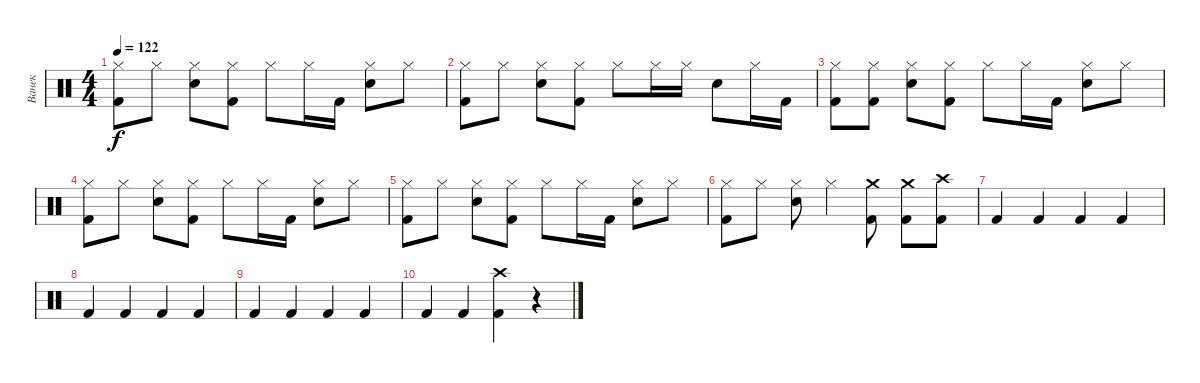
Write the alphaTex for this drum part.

\track ("Ванек" "Ванек") {instrument percussion}
\staff {score}
\articulation defaults
\ts (4 4)
\tempo 122
\clef neutral
\ks c
("Hi-Hat (closed)" "Kick (hit) 2").8{dy f} "Hi-Hat (closed)".8 ("Hi-Hat (closed)" "Electric Snare (hit)").8 ("Hi-Hat (closed)" "Kick (hit) 2").8 "Hi-Hat (closed)".8 "Hi-Hat (closed)".16 "Kick (hit) 2".16 ("Hi-Hat (closed)" "Electric Snare (hit)").8 "Hi-Hat (closed)".8 |
("Hi-Hat (closed)" "Kick (hit) 2").8 "Hi-Hat (closed)".8 ("Hi-Hat (closed)" "Electric Snare (hit)").8 ("Hi-Hat (closed)" "Kick (hit) 2").8 "Hi-Hat (closed)".8 "Hi-Hat (closed)".16 "Hi-Hat (closed)".16 "Electric Snare (hit)".8 "Hi-Hat (closed)".16 "Kick (hit) 2".16 |
("Hi-Hat (closed)" "Kick (hit) 2").8 ("Hi-Hat (closed)" "Kick (hit) 2").8 ("Hi-Hat (closed)" "Electric Snare (hit)").8 ("Hi-Hat (closed)" "Kick (hit) 2").8 "Hi-Hat (closed)".8 "Hi-Hat (closed)".16 "Kick (hit) 2".16 ("Hi-Hat (closed)" "Electric Snare (hit)").8 "Hi-Hat (closed)".8 |
("Hi-Hat (closed)" "Kick (hit) 2").8 "Hi-Hat (closed)".8 ("Hi-Hat (closed)" "Electric Snare (hit)").8 ("Hi-Hat (closed)" "Kick (hit) 2").8 "Hi-Hat (closed)".8 "Hi-Hat (closed)".16 "Kick (hit) 2".16 ("Hi-Hat (closed)" "Electric Snare (hit)").8 "Hi-Hat (closed)".8 |
("Hi-Hat (closed)" "Kick (hit) 2").8 "Hi-Hat (closed)".8 ("Hi-Hat (closed)" "Electric Snare (hit)").8 ("Hi-Hat (closed)" "Kick (hit) 2").8 "Hi-Hat (closed)".8 "Hi-Hat (closed)".16 "Kick (hit) 2".16 ("Hi-Hat (closed)" "Electric Snare (hit)").8 "Hi-Hat (closed)".8 |
("Hi-Hat (closed)" "Kick (hit) 2").8 "Hi-Hat (closed)".8 ("Hi-Hat (closed)" "Electric Snare (hit)").8 "Hi-Hat (closed)".4 ("Crash medium (hit)" "Kick (hit) 2").8 ("Crash medium (hit)" "Kick (hit) 2").8 ("Crash high (hit)" "Kick (hit) 2").8 |
"Kick (hit) 2".4 "Kick (hit) 2".4 "Kick (hit) 2".4 "Kick (hit) 2".4 |
"Kick (hit) 2".4 "Kick (hit) 2".4 "Kick (hit) 2".4 "Kick (hit) 2".4 |
"Kick (hit) 2".4 "Kick (hit) 2".4 "Kick (hit) 2".4 "Kick (hit) 2".4 |
"Kick (hit) 2".4 "Kick (hit) 2".4 ("Crash high (hit)" "Kick (hit) 2").4 r.4
